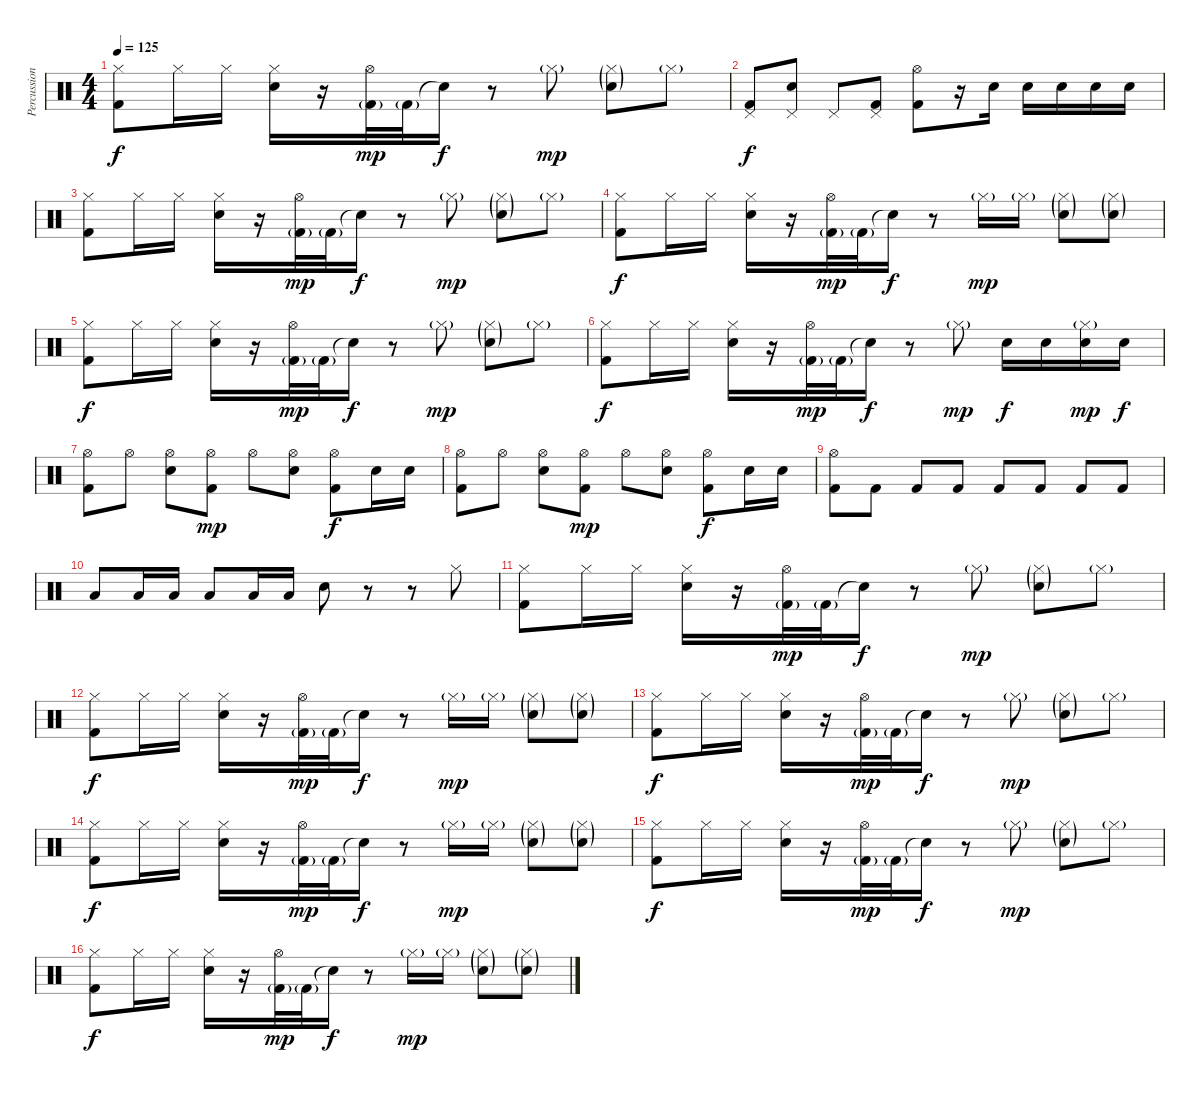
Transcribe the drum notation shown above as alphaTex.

\track ("Percussion" "Percussion") {instrument percussion}
\staff {score}
\articulation defaults
\ts (4 4)
\tempo 125
\clef neutral
\ks c
("Hi-Hat (closed)" "Kick (hit) 2").8{dy f} "Hi-Hat (closed)".16 "Hi-Hat (closed)".16 ("Hi-Hat (closed)" "Snare (hit) 2").16 r.16 ("Hi-Hat (open)" "Kick (hit) 2"{g}).32{dy mp} "Kick (hit) 2"{g}.32 "Snare (hit)"{t}.16{dy f} r.8 "Hi-Hat (closed)"{g}.8{dy mp} ("Hi-Hat (closed)"{g} "Snare (hit) 2"{g}).8 "Hi-Hat (closed)"{g}.8 |
("Pedal Hi-Hat (hit)" "Kick (hit) 2").8{dy f} ("Pedal Hi-Hat (hit)" "Snare (hit) 2").8 "Pedal Hi-Hat (hit)".8 ("Pedal Hi-Hat (hit)" "Kick (hit) 2").8 ("Hi-Hat (open)" "Kick (hit) 2").8 r.16 "Snare (hit) 2".16 "Snare (hit) 2".16 "Snare (hit) 2".16 "Snare (hit) 2".16 "Snare (hit) 2".16 |
("Hi-Hat (closed)" "Kick (hit) 2").8 "Hi-Hat (closed)".16 "Hi-Hat (closed)".16 ("Hi-Hat (closed)" "Snare (hit) 2").16 r.16 ("Hi-Hat (open)" "Kick (hit) 2"{g}).32{dy mp} "Kick (hit) 2"{g}.32 "Snare (hit)"{t}.16{dy f} r.8 "Hi-Hat (closed)"{g}.8{dy mp} ("Hi-Hat (closed)"{g} "Snare (hit) 2"{g}).8 "Hi-Hat (closed)"{g}.8 |
("Hi-Hat (closed)" "Kick (hit) 2").8{dy f} "Hi-Hat (closed)".16 "Hi-Hat (closed)".16 ("Hi-Hat (closed)" "Snare (hit) 2").16 r.16 ("Hi-Hat (open)" "Kick (hit) 2"{g}).32{dy mp} "Kick (hit) 2"{g}.32 "Snare (hit)"{t}.16{dy f} r.8 "Hi-Hat (closed)"{g}.16{dy mp} "Hi-Hat (closed)"{g}.16 ("Hi-Hat (closed)"{g} "Snare (hit) 2"{g}).8 ("Hi-Hat (closed)"{g} "Snare (hit) 2"{g}).8 |
("Hi-Hat (closed)" "Kick (hit) 2").8{dy f} "Hi-Hat (closed)".16 "Hi-Hat (closed)".16 ("Hi-Hat (closed)" "Snare (hit) 2").16 r.16 ("Hi-Hat (open)" "Kick (hit) 2"{g}).32{dy mp} "Kick (hit) 2"{g}.32 "Snare (hit)"{t}.16{dy f} r.8 "Hi-Hat (closed)"{g}.8{dy mp} ("Hi-Hat (closed)"{g} "Snare (hit) 2"{g}).8 "Hi-Hat (closed)"{g}.8 |
("Hi-Hat (closed)" "Kick (hit) 2").8{dy f} "Hi-Hat (closed)".16 "Hi-Hat (closed)".16 ("Hi-Hat (closed)" "Snare (hit) 2").16 r.16 ("Hi-Hat (open)" "Kick (hit) 2"{g}).32{dy mp} "Kick (hit) 2"{g}.32 "Snare (hit)"{t}.16{dy f} r.8 "Hi-Hat (closed)"{g}.8{dy mp} "Snare (hit) 2".16{dy f} "Snare (hit) 2".16 ("Hi-Hat (closed)"{g} "Snare (hit) 2").16{dy mp} "Snare (hit) 2".16{dy f} |
("Hi-Hat (open)" "Kick (hit) 2").8 "Hi-Hat (open)".8 ("Hi-Hat (open)" "Snare (hit) 2").8 ("Hi-Hat (open)" "Kick (hit) 2").8{dy mp} "Hi-Hat (open)".8 ("Hi-Hat (open)" "Snare (hit) 2").8 ("Hi-Hat (open)" "Kick (hit) 2").8{dy f} "Snare (hit) 2".16 "Snare (hit) 2".16 |
("Hi-Hat (open)" "Kick (hit) 2").8 "Hi-Hat (open)".8 ("Hi-Hat (open)" "Snare (hit) 2").8 ("Hi-Hat (open)" "Kick (hit) 2").8{dy mp} "Hi-Hat (open)".8 ("Hi-Hat (open)" "Snare (hit) 2").8 ("Hi-Hat (open)" "Kick (hit) 2").8{dy f} "Snare (hit) 2".16 "Snare (hit) 2".16 |
("Hi-Hat (open)" "Kick (hit) 2").8 "Kick (hit) 2".8 "Kick (hit) 2".8 "Kick (hit) 2".8 "Kick (hit) 2".8 "Kick (hit) 2".8 "Kick (hit) 2".8 "Kick (hit) 2".8 |
"Low Floor Tom (hit)".8 "Low Tom (hit)".16 "Low Tom (hit)".16 "Low Floor Tom (hit)".8 "Low Tom (hit)".16 "Low Tom (hit)".16 "Snare (hit) 2".8 r.8 r.8 "Hi-Hat (closed)".8 |
("Hi-Hat (closed)" "Kick (hit) 2").8 "Hi-Hat (closed)".16 "Hi-Hat (closed)".16 ("Hi-Hat (closed)" "Snare (hit) 2").16 r.16 ("Hi-Hat (open)" "Kick (hit) 2"{g}).32{dy mp} "Kick (hit) 2"{g}.32 "Snare (hit)"{t}.16{dy f} r.8 "Hi-Hat (closed)"{g}.8{dy mp} ("Hi-Hat (closed)"{g} "Snare (hit) 2"{g}).8 "Hi-Hat (closed)"{g}.8 |
("Hi-Hat (closed)" "Kick (hit) 2").8{dy f} "Hi-Hat (closed)".16 "Hi-Hat (closed)".16 ("Hi-Hat (closed)" "Snare (hit) 2").16 r.16 ("Hi-Hat (open)" "Kick (hit) 2"{g}).32{dy mp} "Kick (hit) 2"{g}.32 "Snare (hit)"{t}.16{dy f} r.8 "Hi-Hat (closed)"{g}.16{dy mp} "Hi-Hat (closed)"{g}.16 ("Hi-Hat (closed)"{g} "Snare (hit) 2"{g}).8 ("Hi-Hat (closed)"{g} "Snare (hit) 2"{g}).8 |
("Hi-Hat (closed)" "Kick (hit) 2").8{dy f} "Hi-Hat (closed)".16 "Hi-Hat (closed)".16 ("Hi-Hat (closed)" "Snare (hit) 2").16 r.16 ("Hi-Hat (open)" "Kick (hit) 2"{g}).32{dy mp} "Kick (hit) 2"{g}.32 "Snare (hit)"{t}.16{dy f} r.8 "Hi-Hat (closed)"{g}.8{dy mp} ("Hi-Hat (closed)"{g} "Snare (hit) 2"{g}).8 "Hi-Hat (closed)"{g}.8 |
("Hi-Hat (closed)" "Kick (hit) 2").8{dy f} "Hi-Hat (closed)".16 "Hi-Hat (closed)".16 ("Hi-Hat (closed)" "Snare (hit) 2").16 r.16 ("Hi-Hat (open)" "Kick (hit) 2"{g}).32{dy mp} "Kick (hit) 2"{g}.32 "Snare (hit)"{t}.16{dy f} r.8 "Hi-Hat (closed)"{g}.16{dy mp} "Hi-Hat (closed)"{g}.16 ("Hi-Hat (closed)"{g} "Snare (hit) 2"{g}).8 ("Hi-Hat (closed)"{g} "Snare (hit) 2"{g}).8 |
("Hi-Hat (closed)" "Kick (hit) 2").8{dy f} "Hi-Hat (closed)".16 "Hi-Hat (closed)".16 ("Hi-Hat (closed)" "Snare (hit) 2").16 r.16 ("Hi-Hat (open)" "Kick (hit) 2"{g}).32{dy mp} "Kick (hit) 2"{g}.32 "Snare (hit)"{t}.16{dy f} r.8 "Hi-Hat (closed)"{g}.8{dy mp} ("Hi-Hat (closed)"{g} "Snare (hit) 2"{g}).8 "Hi-Hat (closed)"{g}.8 |
("Hi-Hat (closed)" "Kick (hit) 2").8{dy f} "Hi-Hat (closed)".16 "Hi-Hat (closed)".16 ("Hi-Hat (closed)" "Snare (hit) 2").16 r.16 ("Hi-Hat (open)" "Kick (hit) 2"{g}).32{dy mp} "Kick (hit) 2"{g}.32 "Snare (hit)"{t}.16{dy f} r.8 "Hi-Hat (closed)"{g}.16{dy mp} "Hi-Hat (closed)"{g}.16 ("Hi-Hat (closed)"{g} "Snare (hit) 2"{g}).8 ("Hi-Hat (closed)"{g} "Snare (hit) 2"{g}).8
